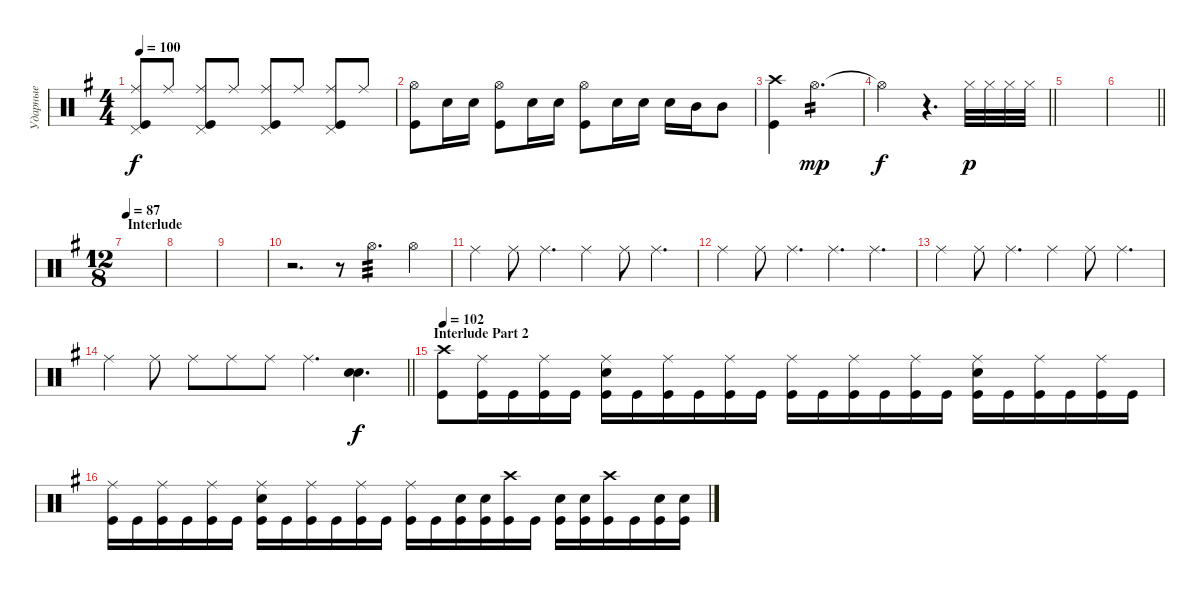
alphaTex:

\track ("Ударные" "Ударные") {instrument percussion}
\staff {score}
\articulation defaults
\ts (4 4)
\tempo 100
\clef neutral
\ks eminor
("Kick (hit)" "Ride (middle)" "Pedal Hi-Hat (hit)").8{dy f} "Ride (middle)".8 ("Ride (middle)" "Pedal Hi-Hat (hit)" "Kick (hit)").8 "Ride (middle)".8 ("Ride (middle)" "Pedal Hi-Hat (hit)" "Kick (hit)").8 "Ride (middle)".8 ("Ride (middle)" "Pedal Hi-Hat (hit)" "Kick (hit)").8 "Ride (middle)".8 |
("Kick (hit)" "Hi-Hat (open)").8 "Snare (hit) 2".16 "Snare (hit) 2".16 ("Kick (hit)" "Hi-Hat (open)").8 "Snare (hit) 2".16 "Snare (hit) 2".16 ("Kick (hit)" "Hi-Hat (open)").8 "Snare (hit) 2".16 "Snare (hit) 2".16 "Snare (hit) 2".16 "Mid Tom (hit)".16 "Mid Tom (hit)".8 |
("Kick (hit)" "Crash high (hit)").4 "Hi-Hat (open)".2{d tp 2 dy mp} |
\barLineRight lightlight "Hi-Hat (open)"{t}.2{dy f}
r.4{d} "Hi-Hat (closed)".32{dy p} "Hi-Hat (closed)".32 "Hi-Hat (closed)".32 "Hi-Hat (closed)".32 |
|
\barLineRight lightlight
|
\ts (12 8)
\section ("" "Interlude")
\tempo 87
|
|
|
r.2{d} r.8{volume 0} "Hi-Hat (open)".4{d tp 3 volume 16} "Hi-Hat (open)".4 |
"Ride (middle)".4 "Ride (middle)".8 "Ride (middle)".4{d} "Ride (middle)".4 "Ride (middle)".8 "Ride (middle)".4{d} |
"Ride (middle)".4 "Ride (middle)".8 "Ride (middle)".4{d} "Ride (middle)".4{d} "Ride (middle)".4{d} |
"Ride (middle)".4 "Ride (middle)".8 "Ride (middle)".4{d} "Ride (middle)".4 "Ride (middle)".8 "Ride (middle)".4{d} |
\barLineRight lightlight "Ride (middle)".4 "Ride (middle)".8 "Ride (middle)".8 "Ride (middle)".8 "Ride (middle)".8 "Ride (middle)".4{d}
("Snare (hit) 2" "Snare (hit) 2").4{d bu 120 dy f} |
\section ("" "Interlude Part 2")
\tempo 102
("Kick (hit)" "Crash high (hit)").8{bd 120} ("Kick (hit)" "Ride (middle)").16{bd 120} "Kick (hit)".16 ("Kick (hit)" "Ride (middle)").16{bd 120} "Kick (hit)".16 ("Kick (hit)" "Snare (hit) 2" "Ride (middle)").16{bd 120} "Kick (hit)".16 ("Kick (hit)" "Ride (middle)").16{bd 120} "Kick (hit)".16 ("Kick (hit)" "Ride (middle)").16{bd 120} "Kick (hit)".16 ("Kick (hit)" "Ride (middle)").16{bd 120} "Kick (hit)".16 ("Kick (hit)" "Ride (middle)").16{bd 120} "Kick (hit)".16 ("Kick (hit)" "Ride (middle)").16{bd 120} "Kick (hit)".16 ("Kick (hit)" "Snare (hit) 2" "Ride (middle)").16{bd 120} "Kick (hit)".16 ("Kick (hit)" "Ride (middle)").16{bd 120} "Kick (hit)".16 ("Kick (hit)" "Ride (middle)").16{bd 120} "Kick (hit)".16 |
("Kick (hit)" "Ride (middle)").16{bd 120} "Kick (hit)".16 ("Kick (hit)" "Ride (middle)").16{bd 120} "Kick (hit)".16 ("Kick (hit)" "Ride (middle)").16{bd 120} "Kick (hit)".16 ("Kick (hit)" "Snare (hit) 2" "Ride (middle)").16{bd 120} "Kick (hit)".16 ("Kick (hit)" "Ride (middle)").16{bd 120} "Kick (hit)".16 ("Kick (hit)" "Ride (middle)").16{bd 120} "Kick (hit)".16 ("Kick (hit)" "Ride (middle)").16{bd 120} "Kick (hit)".16 ("Kick (hit)" "Snare (hit) 2").16{bd 120} ("Kick (hit)" "Snare (hit) 2").16{bd 120} ("Kick (hit)" "Crash high (hit)").16{bd 120} "Kick (hit)".16 ("Kick (hit)" "Snare (hit) 2").16{bd 120} ("Kick (hit)" "Snare (hit) 2").16{bd 120} ("Kick (hit)" "Crash high (hit)").16{bd 120} "Kick (hit)".16 ("Kick (hit)" "Snare (hit) 2").16{bd 120} ("Kick (hit)" "Snare (hit) 2").16{bd 120}
